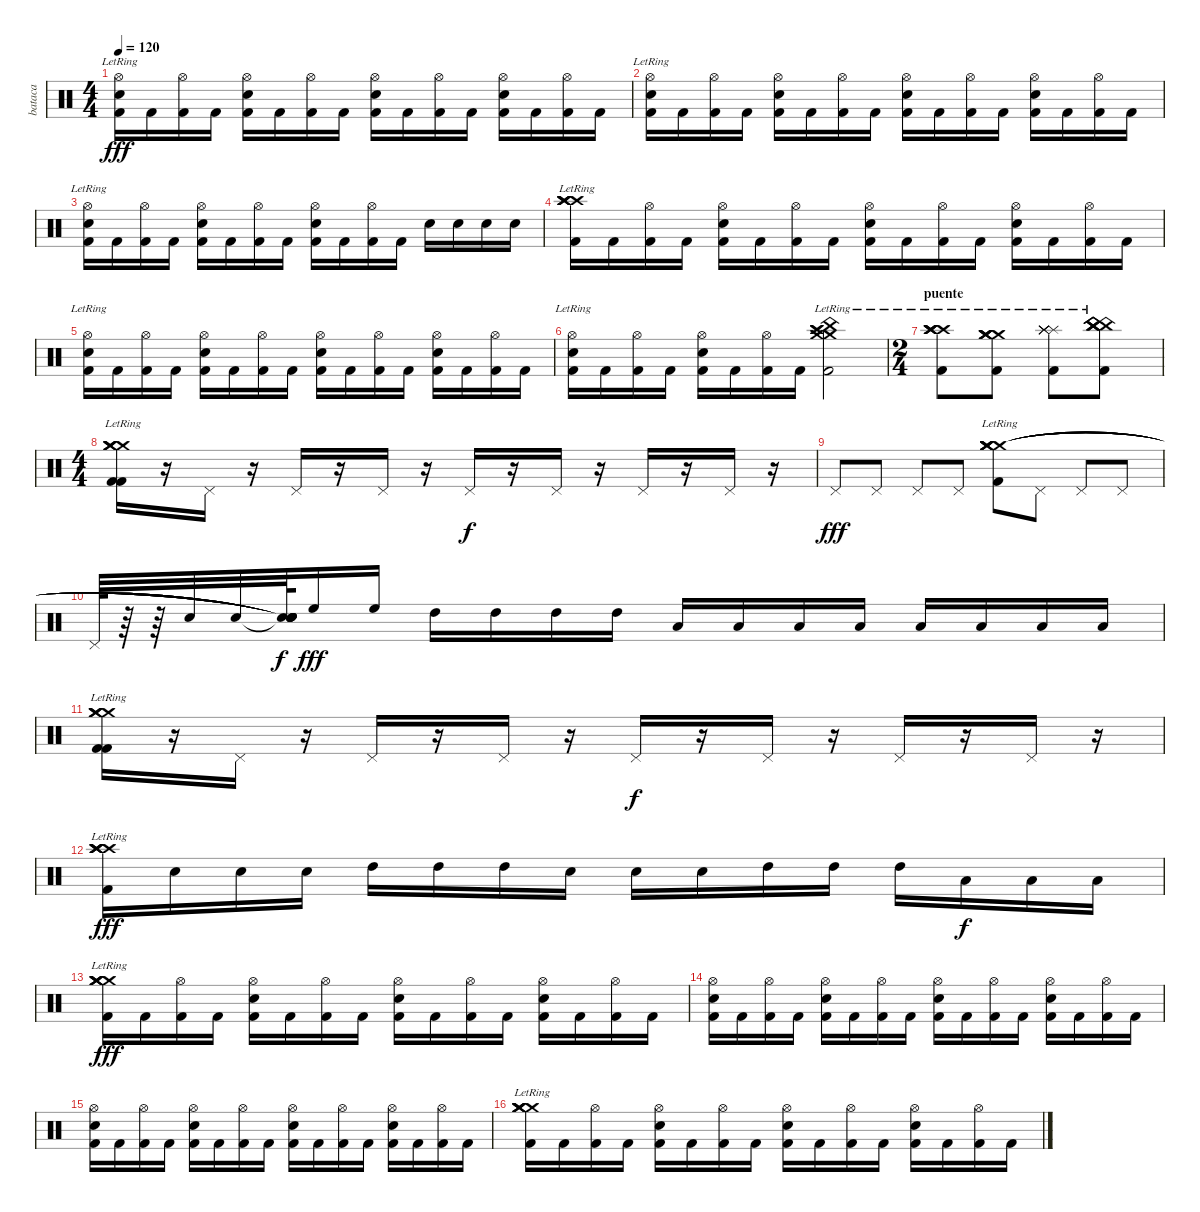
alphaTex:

\track ("bataca" "bataca") {instrument percussion}
\staff {score}
\articulation defaults
\ts (4 4)
\tempo 120
\clef neutral
\ks c
("Kick (hit) 2" "Hi-Hat (open)"{lr} "Electric Snare (hit)"{lr}).16{dy fff} "Kick (hit) 2".16 ("Kick (hit) 2" "Hi-Hat (open)").16 "Kick (hit) 2".16 ("Kick (hit) 2" "Hi-Hat (open)" "Electric Snare (hit)").16 "Kick (hit) 2".16 ("Kick (hit) 2" "Hi-Hat (open)").16 "Kick (hit) 2".16 ("Kick (hit) 2" "Hi-Hat (open)" "Electric Snare (hit)").16 "Kick (hit) 2".16 ("Kick (hit) 2" "Hi-Hat (open)").16 "Kick (hit) 2".16 ("Kick (hit) 2" "Hi-Hat (open)" "Electric Snare (hit)").16 "Kick (hit) 2".16 ("Kick (hit) 2" "Hi-Hat (open)").16 "Kick (hit) 2".16 |
("Kick (hit) 2" "Hi-Hat (open)"{lr} "Electric Snare (hit)"{lr}).16 "Kick (hit) 2".16 ("Kick (hit) 2" "Hi-Hat (open)").16 "Kick (hit) 2".16 ("Kick (hit) 2" "Hi-Hat (open)" "Electric Snare (hit)").16 "Kick (hit) 2".16 ("Kick (hit) 2" "Hi-Hat (open)").16 "Kick (hit) 2".16 ("Kick (hit) 2" "Hi-Hat (open)" "Electric Snare (hit)").16 "Kick (hit) 2".16 ("Kick (hit) 2" "Hi-Hat (open)").16 "Kick (hit) 2".16 ("Kick (hit) 2" "Hi-Hat (open)" "Electric Snare (hit)").16 "Kick (hit) 2".16 ("Kick (hit) 2" "Hi-Hat (open)").16 "Kick (hit) 2".16 |
("Kick (hit) 2" "Hi-Hat (open)"{lr} "Electric Snare (hit)"{lr}).16 "Kick (hit) 2".16 ("Kick (hit) 2" "Hi-Hat (open)").16 "Kick (hit) 2".16 ("Kick (hit) 2" "Hi-Hat (open)" "Electric Snare (hit)").16 "Kick (hit) 2".16 ("Kick (hit) 2" "Hi-Hat (open)").16 "Kick (hit) 2".16 ("Kick (hit) 2" "Hi-Hat (open)" "Electric Snare (hit)").16 "Kick (hit) 2".16 ("Kick (hit) 2" "Hi-Hat (open)").16 "Kick (hit) 2".16 "Electric Snare (hit)".16 "Electric Snare (hit)".16 "Electric Snare (hit)".16 "Electric Snare (hit)".16 |
("Kick (hit) 2"{lr} "Crash high (hit)"{lr} "Crash high (hit)"{lr} "Crash high (hit)"{lr} "Crash high (hit)"{lr} "Crash high (hit)"{lr}).16 "Kick (hit) 2".16 ("Kick (hit) 2" "Hi-Hat (open)").16 "Kick (hit) 2".16 ("Kick (hit) 2" "Hi-Hat (open)" "Electric Snare (hit)").16 "Kick (hit) 2".16 ("Kick (hit) 2" "Hi-Hat (open)").16 "Kick (hit) 2".16 ("Kick (hit) 2" "Hi-Hat (open)" "Electric Snare (hit)").16 "Kick (hit) 2".16 ("Kick (hit) 2" "Hi-Hat (open)").16 "Kick (hit) 2".16 ("Kick (hit) 2" "Hi-Hat (open)" "Electric Snare (hit)").16 "Kick (hit) 2".16 ("Kick (hit) 2" "Hi-Hat (open)").16 "Kick (hit) 2".16 |
("Kick (hit) 2" "Hi-Hat (open)"{lr} "Electric Snare (hit)"{lr}).16 "Kick (hit) 2".16 ("Kick (hit) 2" "Hi-Hat (open)").16 "Kick (hit) 2".16 ("Kick (hit) 2" "Hi-Hat (open)" "Electric Snare (hit)").16 "Kick (hit) 2".16 ("Kick (hit) 2" "Hi-Hat (open)").16 "Kick (hit) 2".16 ("Kick (hit) 2" "Hi-Hat (open)" "Electric Snare (hit)").16 "Kick (hit) 2".16 ("Kick (hit) 2" "Hi-Hat (open)").16 "Kick (hit) 2".16 ("Kick (hit) 2" "Hi-Hat (open)" "Electric Snare (hit)").16 "Kick (hit) 2".16 ("Kick (hit) 2" "Hi-Hat (open)").16 "Kick (hit) 2".16 |
("Kick (hit) 2" "Hi-Hat (open)"{lr} "Electric Snare (hit)"{lr}).16 "Kick (hit) 2".16 ("Kick (hit) 2" "Hi-Hat (open)").16 "Kick (hit) 2".16 ("Kick (hit) 2" "Hi-Hat (open)" "Electric Snare (hit)").16 "Kick (hit) 2".16 ("Kick (hit) 2" "Hi-Hat (open)").16 "Kick (hit) 2".16 ("Kick (hit) 2" "China (hit)"{lr} "Crash medium (hit)"{lr} "Crash medium (hit)"{lr} "Crash high (hit)"{lr} "Crash high (hit)"{lr}).2 |
\ts (2 4)
\section ("" "puente")
("Kick (hit) 2" "Crash high (hit)"{lr} "Crash high (hit)"{lr} "Crash high (hit)"{lr} "Crash high (hit)"{lr} "Crash high (hit)"{lr}).8 ("Kick (hit) 2" "Crash medium (hit)"{lr} "Crash medium (hit)"{lr} "Crash medium (hit)"{lr} "Crash medium (hit)"{lr} "Crash medium (hit)"{lr}).8 ("Kick (hit) 2" "Splash (hit)"{lr} "Splash (hit)"{lr} "Splash (hit)"{lr} "Splash (hit)"{lr} "Splash (hit)"{lr}).8 ("Kick (hit) 2" "China (hit)"{lr} "China (hit)"{lr} "China (hit)"{lr} "China (hit)"{lr} "China (hit)"{lr}).8 |
\ts (4 4)
("Kick (hit) 2"{lr} "Kick (hit) 2"{lr} "Crash medium (hit)" "Crash medium (hit)" "Crash medium (hit)" "Crash medium (hit)").16 r.16 "Pedal Hi-Hat (hit)".16 r.16 "Pedal Hi-Hat (hit)".16 r.16 "Pedal Hi-Hat (hit)".16 r.16 "Pedal Hi-Hat (hit)".16{dy f} r.16 "Pedal Hi-Hat (hit)".16 r.16 "Pedal Hi-Hat (hit)".16 r.16 "Pedal Hi-Hat (hit)".16 r.16 |
"Pedal Hi-Hat (hit)".8{dy fff} "Pedal Hi-Hat (hit)".8 "Pedal Hi-Hat (hit)".8 "Pedal Hi-Hat (hit)".8 ("Kick (hit) 2"{lr} "Crash medium (hit)"{lr} "Crash medium (hit)"{lr} "Crash medium (hit)"{lr} "Crash medium (hit)"{lr} "Crash medium (hit)"{lr}).8 "Pedal Hi-Hat (hit)".8 "Pedal Hi-Hat (hit)".8 "Pedal Hi-Hat (hit)".8 |
"Pedal Hi-Hat (hit)".64 r.64 r.64 "Electric Snare (hit)".32 "Electric Snare (hit)".32 ("Snare (hit)"{t} "Snare (hit)"{t} "Snare (hit)"{t} "Snare (hit)"{t} "Snare (hit)"{t} "Snare (hit)"{t}).64{dy f} "High Floor Tom (hit)".16{dy fff} "High Floor Tom (hit)".16 "High Tom (hit)".16 "High Tom (hit)".16 "High Tom (hit)".16 "High Tom (hit)".16 "Low Tom (hit)".16 "Low Tom (hit)".16 "Low Tom (hit)".16 "Low Tom (hit)".16 "Low Floor Tom (hit)".16 "Low Floor Tom (hit)".16 "Low Floor Tom (hit)".16 "Low Floor Tom (hit)".16 |
("Kick (hit) 2"{lr} "Kick (hit) 2"{lr} "Crash medium (hit)" "Crash medium (hit)" "Crash medium (hit)" "Crash medium (hit)").16 r.16 "Pedal Hi-Hat (hit)".16 r.16 "Pedal Hi-Hat (hit)".16 r.16 "Pedal Hi-Hat (hit)".16 r.16 "Pedal Hi-Hat (hit)".16{dy f} r.16 "Pedal Hi-Hat (hit)".16 r.16 "Pedal Hi-Hat (hit)".16 r.16 "Pedal Hi-Hat (hit)".16 r.16 |
("Kick (hit) 2" "Crash high (hit)"{lr} "Crash high (hit)"{lr} "Crash high (hit)"{lr} "Crash high (hit)"{lr} "Crash high (hit)"{lr}).16{dy fff} "Electric Snare (hit)".16 "Electric Snare (hit)".16 "Electric Snare (hit)".16 "High Tom (hit)".16 "High Tom (hit)".16 "High Tom (hit)".16 "Electric Snare (hit)".16 "Electric Snare (hit)".16 "Electric Snare (hit)".16 "High Tom (hit)".16 "High Tom (hit)".16 "High Tom (hit)".16 "Low Tom (hit)".16{dy f} "Low Tom (hit)".16 "Low Tom (hit)".16 |
("Kick (hit) 2" "Crash medium (hit)"{lr} "Crash medium (hit)"{lr} "Crash medium (hit)"{lr} "Crash medium (hit)"{lr} "Crash medium (hit)").16{dy fff} "Kick (hit) 2".16 ("Kick (hit) 2" "Hi-Hat (open)").16 "Kick (hit) 2".16 ("Kick (hit) 2" "Hi-Hat (open)" "Electric Snare (hit)").16 "Kick (hit) 2".16 ("Kick (hit) 2" "Hi-Hat (open)").16 "Kick (hit) 2".16 ("Kick (hit) 2" "Hi-Hat (open)" "Electric Snare (hit)").16 "Kick (hit) 2".16 ("Kick (hit) 2" "Hi-Hat (open)").16 "Kick (hit) 2".16 ("Kick (hit) 2" "Hi-Hat (open)" "Electric Snare (hit)").16 "Kick (hit) 2".16 ("Kick (hit) 2" "Hi-Hat (open)").16 "Kick (hit) 2".16 |
("Kick (hit) 2" "Hi-Hat (open)" "Electric Snare (hit)").16 "Kick (hit) 2".16 ("Kick (hit) 2" "Hi-Hat (open)").16 "Kick (hit) 2".16 ("Kick (hit) 2" "Hi-Hat (open)" "Electric Snare (hit)").16 "Kick (hit) 2".16 ("Kick (hit) 2" "Hi-Hat (open)").16 "Kick (hit) 2".16 ("Kick (hit) 2" "Hi-Hat (open)" "Electric Snare (hit)").16 "Kick (hit) 2".16 ("Kick (hit) 2" "Hi-Hat (open)").16 "Kick (hit) 2".16 ("Kick (hit) 2" "Hi-Hat (open)" "Electric Snare (hit)").16 "Kick (hit) 2".16 ("Kick (hit) 2" "Hi-Hat (open)").16 "Kick (hit) 2".16 |
("Kick (hit) 2" "Hi-Hat (open)" "Electric Snare (hit)").16 "Kick (hit) 2".16 ("Kick (hit) 2" "Hi-Hat (open)").16 "Kick (hit) 2".16 ("Kick (hit) 2" "Hi-Hat (open)" "Electric Snare (hit)").16 "Kick (hit) 2".16 ("Kick (hit) 2" "Hi-Hat (open)").16 "Kick (hit) 2".16 ("Kick (hit) 2" "Hi-Hat (open)" "Electric Snare (hit)").16 "Kick (hit) 2".16 ("Kick (hit) 2" "Hi-Hat (open)").16 "Kick (hit) 2".16 ("Kick (hit) 2" "Hi-Hat (open)" "Electric Snare (hit)").16 "Kick (hit) 2".16 ("Kick (hit) 2" "Hi-Hat (open)").16 "Kick (hit) 2".16 |
("Kick (hit) 2" "Crash medium (hit)"{lr} "Crash medium (hit)"{lr} "Crash medium (hit)"{lr} "Crash medium (hit)"{lr} "Crash medium (hit)").16 "Kick (hit) 2".16 ("Kick (hit) 2" "Hi-Hat (open)").16 "Kick (hit) 2".16 ("Kick (hit) 2" "Hi-Hat (open)" "Electric Snare (hit)").16 "Kick (hit) 2".16 ("Kick (hit) 2" "Hi-Hat (open)").16 "Kick (hit) 2".16 ("Kick (hit) 2" "Hi-Hat (open)" "Electric Snare (hit)").16 "Kick (hit) 2".16 ("Kick (hit) 2" "Hi-Hat (open)").16 "Kick (hit) 2".16 ("Kick (hit) 2" "Hi-Hat (open)" "Electric Snare (hit)").16 "Kick (hit) 2".16 ("Kick (hit) 2" "Hi-Hat (open)").16 "Kick (hit) 2".16
